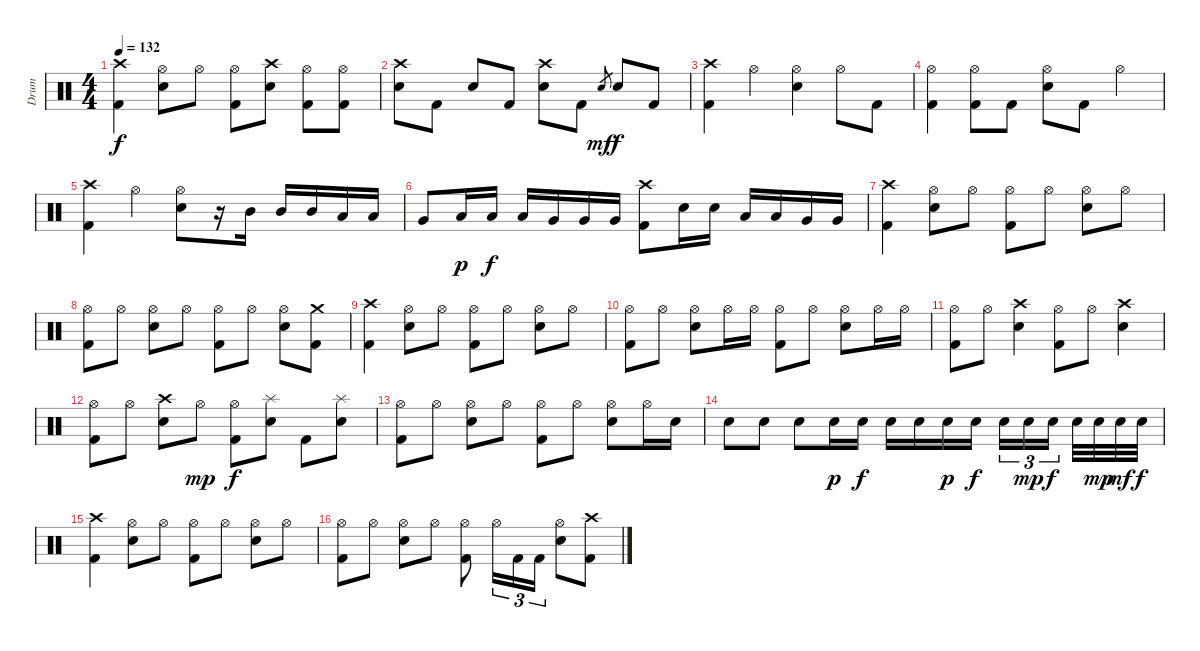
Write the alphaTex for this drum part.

\track ("Drum" "Drum") {instrument percussion}
\staff {score}
\articulation defaults
\ts (4 4)
\tempo 132
\clef neutral
\ks c
("Crash high (hit)" "Kick (hit) 2").4{dy f} ("Hi-Hat (open)" "Snare (hit) 2").8 "Hi-Hat (open)".8 ("Hi-Hat (open)" "Kick (hit) 2").8 ("Crash high (hit)" "Snare (hit) 2").8 ("Hi-Hat (open)" "Kick (hit) 2").8 ("Hi-Hat (open)" "Kick (hit) 2").8 |
("Crash high (hit)" "Snare (hit) 2").8 "Kick (hit) 2".8 "Snare (hit) 2".8 "Kick (hit) 2".8 ("Crash high (hit)" "Snare (hit) 2").8 "Kick (hit) 2".8 "Snare (hit)".8{gr dy mf} "Snare (hit) 2".8{dy f} "Kick (hit) 2".8 |
("Crash high (hit)" "Kick (hit) 2").4 "Hi-Hat (open)".4 ("Hi-Hat (open)" "Snare (hit) 2").4 "Hi-Hat (open)".8 "Kick (hit) 2".8 |
("Hi-Hat (open)" "Kick (hit) 2").4 ("Hi-Hat (open)" "Kick (hit) 2").8 "Kick (hit) 2".8 ("Hi-Hat (open)" "Snare (hit) 2").8 "Kick (hit) 2".8 "Hi-Hat (open)".4 |
\section ("" "")
("Crash high (hit)" "Kick (hit) 2").4 "Hi-Hat (open)".4 ("Hi-Hat (open)" "Snare (hit) 2").8 r.16 "Mid Tom (hit)".16 "Mid Tom (hit)".16 "Mid Tom (hit)".16 "Low Tom (hit)".16 "Low Tom (hit)".16 |
"Very Low Tom (hit)".8 "Low Tom (hit)".16{dy p} "Low Tom (hit)".16{dy f} "Low Tom (hit)".16 "Very Low Tom (hit)".16 "Very Low Tom (hit)".16 "Very Low Tom (hit)".16 ("Crash high (hit)" "Kick (hit) 2").8 "Snare (hit) 2".16 "Snare (hit) 2".16 "Low Tom (hit)".16 "Low Tom (hit)".16 "Very Low Tom (hit)".16 "Very Low Tom (hit)".16 |
("Crash high (hit)" "Kick (hit) 2").4 ("Hi-Hat (open)" "Snare (hit) 2").8 "Hi-Hat (open)".8 ("Hi-Hat (open)" "Kick (hit) 2").8 "Hi-Hat (open)".8 ("Hi-Hat (open)" "Snare (hit) 2").8 "Hi-Hat (open)".8 |
("Hi-Hat (open)" "Kick (hit) 2").8 "Hi-Hat (open)".8 ("Hi-Hat (open)" "Snare (hit) 2").8 "Hi-Hat (open)".8 ("Hi-Hat (open)" "Kick (hit) 2").8 "Hi-Hat (open)".8 ("Hi-Hat (open)" "Snare (hit) 2").8 ("Crash medium (hit)" "Kick (hit) 2").8 |
("Crash high (hit)" "Kick (hit) 2").4 ("Hi-Hat (open)" "Snare (hit) 2").8 "Hi-Hat (open)".8 ("Hi-Hat (open)" "Kick (hit) 2").8 "Hi-Hat (open)".8 ("Hi-Hat (open)" "Snare (hit) 2").8 "Hi-Hat (open)".8 |
("Hi-Hat (open)" "Kick (hit) 2").8 "Hi-Hat (open)".8 ("Hi-Hat (open)" "Snare (hit) 2").8 "Hi-Hat (open)".16 "Hi-Hat (open)".16 ("Hi-Hat (open)" "Kick (hit) 2").8 "Hi-Hat (open)".8 ("Hi-Hat (open)" "Snare (hit) 2").8 "Hi-Hat (open)".16 "Hi-Hat (open)".16 |
("Hi-Hat (open)" "Kick (hit) 2").8 "Hi-Hat (open)".8 ("Crash high (hit)" "Snare (hit) 2").4 ("Hi-Hat (open)" "Kick (hit) 2").8 "Hi-Hat (open)".8 ("Crash high (hit)" "Snare (hit) 2").4 |
("Hi-Hat (open)" "Kick (hit) 2").8 "Hi-Hat (open)".8 ("Crash high (hit)" "Snare (hit) 2").8 "Hi-Hat (open)".8{dy mp} ("Hi-Hat (open)" "Kick (hit) 2").8{dy f} ("Splash (hit)" "Snare (hit) 2").8 "Kick (hit) 2".8 ("Splash (hit)" "Snare (hit) 2").8 |
("Hi-Hat (open)" "Kick (hit) 2").8 "Hi-Hat (open)".8 ("Hi-Hat (open)" "Snare (hit) 2").8 "Hi-Hat (open)".8 ("Hi-Hat (open)" "Kick (hit) 2").8 "Hi-Hat (open)".8 ("Hi-Hat (open)" "Snare (hit) 2").8 "Hi-Hat (open)".16 "Snare (hit) 2".16 |
"Snare (hit) 2".8 "Snare (hit) 2".8 "Snare (hit) 2".8 "Snare (hit) 2".16{dy p} "Snare (hit) 2".16{dy f} "Snare (hit) 2".16 "Snare (hit) 2".16 "Snare (hit) 2".16{dy p} "Snare (hit) 2".16{dy f} "Snare (hit) 2".16{tu (3 2)} "Snare (hit) 2".16{tu (3 2) dy mp} "Snare (hit) 2".16{tu (3 2) dy f} "Snare (hit) 2".32 "Snare (hit) 2".32{dy mp} "Snare (hit) 2".32{dy mf} "Snare (hit) 2".32{dy f} |
("Crash high (hit)" "Kick (hit) 2").4 ("Hi-Hat (open)" "Snare (hit) 2").8 "Hi-Hat (open)".8 ("Hi-Hat (open)" "Kick (hit) 2").8 "Hi-Hat (open)".8 ("Hi-Hat (open)" "Snare (hit) 2").8 "Hi-Hat (open)".8 |
("Hi-Hat (open)" "Kick (hit) 2").8 "Hi-Hat (open)".8 ("Hi-Hat (open)" "Snare (hit) 2").8 "Hi-Hat (open)".8 ("Hi-Hat (open)" "Kick (hit) 2").8 "Hi-Hat (open)".16{tu (3 2)} "Kick (hit) 2".16{tu (3 2)} "Kick (hit) 2".16{tu (3 2)} ("Hi-Hat (open)" "Snare (hit) 2").8 ("Crash high (hit)" "Kick (hit) 2").8
